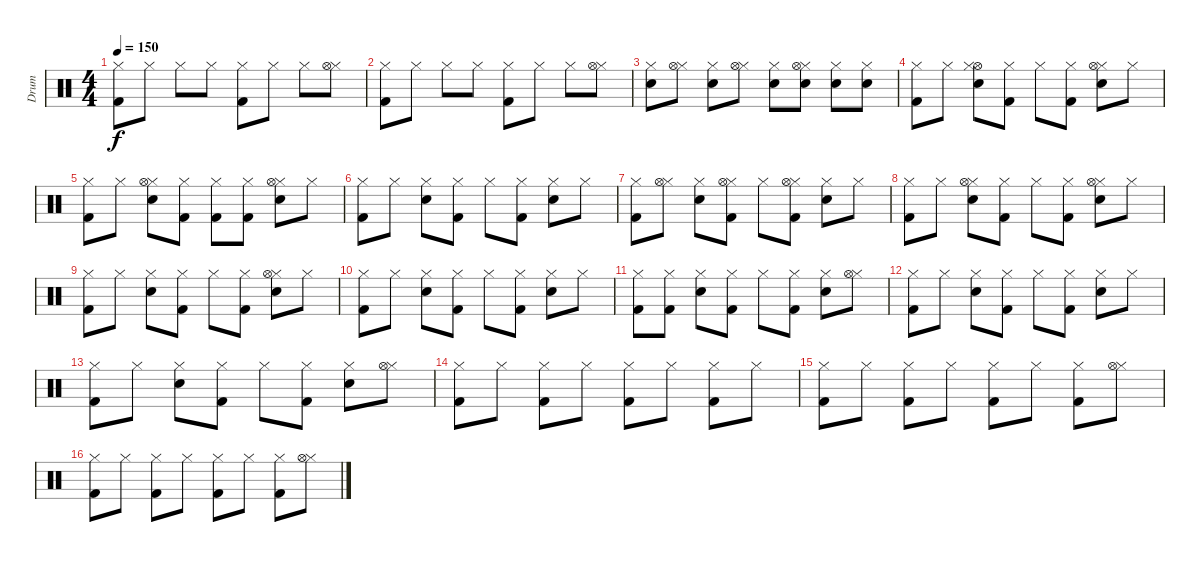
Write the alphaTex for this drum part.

\track ("Drum" "Drum") {instrument percussion}
\staff {score}
\articulation defaults
\ts (4 4)
\tempo 150
\clef neutral
\ks c
("Hi-Hat (closed)" "Kick (hit) 2").8{dy f} "Hi-Hat (closed)".8 "Hi-Hat (closed)".8 "Hi-Hat (closed)".8 ("Kick (hit) 2" "Hi-Hat (closed)").8 "Hi-Hat (closed)".8 "Hi-Hat (closed)".8 ("Hi-Hat (closed)" "Hi-Hat (open)").8 |
("Hi-Hat (closed)" "Kick (hit) 2").8 "Hi-Hat (closed)".8 "Hi-Hat (closed)".8 "Hi-Hat (closed)".8 ("Kick (hit) 2" "Hi-Hat (closed)").8 "Hi-Hat (closed)".8 "Hi-Hat (closed)".8 ("Hi-Hat (closed)" "Hi-Hat (open)").8 |
("Electric Snare (hit)" "Hi-Hat (closed)").8 ("Hi-Hat (closed)" "Hi-Hat (open)").8 ("Electric Snare (hit)" "Hi-Hat (closed)").8 ("Hi-Hat (closed)" "Hi-Hat (open)").8 ("Electric Snare (hit)" "Hi-Hat (closed)").8 ("Electric Snare (hit)" "Hi-Hat (closed)" "Hi-Hat (open)").8 ("Electric Snare (hit)" "Hi-Hat (closed)").8 ("Electric Snare (hit)" "Hi-Hat (closed)").8 |
("Kick (hit) 2" "Hi-Hat (closed)").8 "Hi-Hat (closed)".8 ("Hi-Hat (open)" "Hi-Hat (closed)" "Snare (hit) 2").8 ("Hi-Hat (closed)" "Kick (hit) 2").8 "Hi-Hat (closed)".8 ("Hi-Hat (closed)" "Kick (hit) 2").8 ("Hi-Hat (closed)" "Hi-Hat (open)" "Snare (hit) 2").8 "Hi-Hat (closed)".8 |
("Hi-Hat (closed)" "Kick (hit) 2").8 "Hi-Hat (closed)".8 ("Hi-Hat (closed)" "Snare (hit) 2" "Hi-Hat (open)").8 ("Hi-Hat (closed)" "Kick (hit) 2").8 ("Hi-Hat (closed)" "Kick (hit) 2").8 ("Hi-Hat (closed)" "Kick (hit) 2").8 ("Hi-Hat (closed)" "Hi-Hat (open)" "Snare (hit) 2").8 "Hi-Hat (closed)".8 |
("Hi-Hat (closed)" "Kick (hit) 2").8 "Hi-Hat (closed)".8 ("Hi-Hat (closed)" "Snare (hit) 2").8 ("Hi-Hat (closed)" "Kick (hit) 2").8 "Hi-Hat (closed)".8 ("Hi-Hat (closed)" "Kick (hit) 2").8 ("Hi-Hat (closed)" "Snare (hit) 2").8 "Hi-Hat (closed)".8 |
("Hi-Hat (closed)" "Kick (hit) 2").8 ("Hi-Hat (closed)" "Hi-Hat (open)").8 ("Hi-Hat (closed)" "Snare (hit) 2").8 ("Hi-Hat (closed)" "Kick (hit) 2" "Hi-Hat (open)").8 "Hi-Hat (closed)".8 ("Hi-Hat (closed)" "Kick (hit) 2" "Hi-Hat (open)").8 ("Hi-Hat (closed)" "Snare (hit) 2").8 "Hi-Hat (closed)".8 |
("Hi-Hat (closed)" "Kick (hit) 2").8 "Hi-Hat (closed)".8 ("Hi-Hat (closed)" "Snare (hit) 2" "Hi-Hat (open)").8 ("Hi-Hat (closed)" "Kick (hit) 2").8 "Hi-Hat (closed)".8 ("Hi-Hat (closed)" "Kick (hit) 2").8 ("Hi-Hat (closed)" "Hi-Hat (open)" "Snare (hit) 2").8 "Hi-Hat (closed)".8 |
("Hi-Hat (closed)" "Kick (hit) 2").8 "Hi-Hat (closed)".8 ("Hi-Hat (closed)" "Snare (hit) 2").8 ("Hi-Hat (closed)" "Kick (hit) 2").8 "Hi-Hat (closed)".8 ("Hi-Hat (closed)" "Kick (hit) 2").8 ("Hi-Hat (closed)" "Hi-Hat (open)" "Snare (hit) 2").8 "Hi-Hat (closed)".8 |
("Hi-Hat (closed)" "Kick (hit) 2").8 "Hi-Hat (closed)".8 ("Hi-Hat (closed)" "Snare (hit) 2").8 ("Hi-Hat (closed)" "Kick (hit) 2").8 "Hi-Hat (closed)".8 ("Hi-Hat (closed)" "Kick (hit) 2").8 ("Hi-Hat (closed)" "Snare (hit) 2").8 "Hi-Hat (closed)".8 |
("Hi-Hat (closed)" "Kick (hit) 2").8 ("Hi-Hat (closed)" "Kick (hit) 2").8 ("Hi-Hat (closed)" "Snare (hit) 2").8 ("Hi-Hat (closed)" "Kick (hit) 2").8 "Hi-Hat (closed)".8 ("Hi-Hat (closed)" "Kick (hit) 2").8 ("Hi-Hat (closed)" "Snare (hit) 2").8 ("Hi-Hat (closed)" "Hi-Hat (open)").8 |
("Hi-Hat (closed)" "Kick (hit) 2").8 "Hi-Hat (closed)".8 ("Hi-Hat (closed)" "Snare (hit) 2").8 ("Hi-Hat (closed)" "Kick (hit) 2").8 "Hi-Hat (closed)".8 ("Hi-Hat (closed)" "Kick (hit) 2").8 ("Hi-Hat (closed)" "Snare (hit) 2").8 "Hi-Hat (closed)".8 |
("Hi-Hat (closed)" "Kick (hit) 2").8 "Hi-Hat (closed)".8 ("Hi-Hat (closed)" "Snare (hit) 2").8 ("Hi-Hat (closed)" "Kick (hit) 2").8 "Hi-Hat (closed)".8 ("Hi-Hat (closed)" "Kick (hit) 2").8 ("Hi-Hat (closed)" "Snare (hit) 2").8 ("Hi-Hat (closed)" "Hi-Hat (open)").8 |
("Hi-Hat (closed)" "Kick (hit) 2").8 "Hi-Hat (closed)".8 ("Hi-Hat (closed)" "Kick (hit) 2").8 "Hi-Hat (closed)".8 ("Hi-Hat (closed)" "Kick (hit) 2").8 "Hi-Hat (closed)".8 ("Hi-Hat (closed)" "Kick (hit) 2").8 "Hi-Hat (closed)".8 |
("Hi-Hat (closed)" "Kick (hit) 2").8 "Hi-Hat (closed)".8 ("Hi-Hat (closed)" "Kick (hit) 2").8 "Hi-Hat (closed)".8 ("Hi-Hat (closed)" "Kick (hit) 2").8 "Hi-Hat (closed)".8 ("Hi-Hat (closed)" "Kick (hit) 2").8 ("Hi-Hat (closed)" "Hi-Hat (open)").8 |
("Hi-Hat (closed)" "Kick (hit) 2").8 "Hi-Hat (closed)".8 ("Hi-Hat (closed)" "Kick (hit) 2").8 "Hi-Hat (closed)".8 ("Hi-Hat (closed)" "Kick (hit) 2").8 "Hi-Hat (closed)".8 ("Hi-Hat (closed)" "Kick (hit) 2").8 ("Hi-Hat (closed)" "Hi-Hat (open)").8
